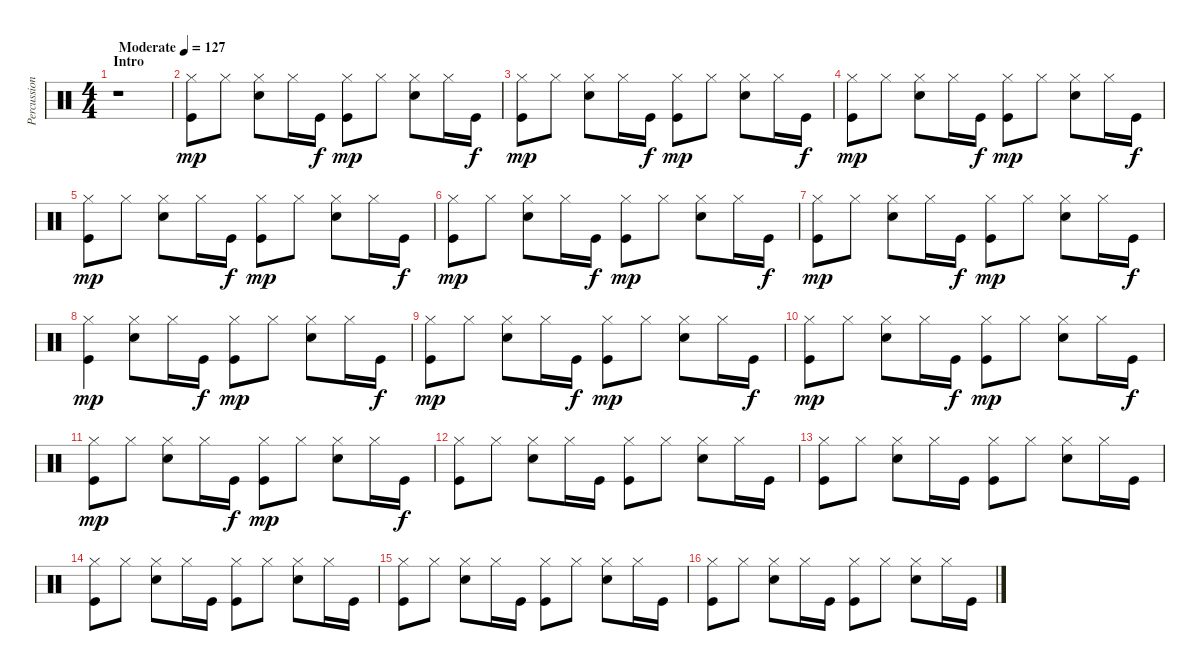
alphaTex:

\track ("Percussion" "Percussion") {instrument percussion}
\staff {score}
\articulation defaults
\ts (4 4)
\section ("" "Intro")
\tempo (127 "Moderate")
\clef neutral
\ks c
r.1{dy mp} |
("Hi-Hat (closed)" "Kick (hit)").8 "Hi-Hat (closed)".8 ("Hi-Hat (closed)" "Snare (hit) 2").8 "Hi-Hat (closed)".16 "Kick (hit)".16{dy f} ("Hi-Hat (closed)" "Kick (hit)").8{dy mp} "Hi-Hat (closed)".8 ("Hi-Hat (closed)" "Snare (hit) 2").8 "Hi-Hat (closed)".16 "Kick (hit)".16{dy f} |
("Hi-Hat (closed)" "Kick (hit)").8{dy mp} "Hi-Hat (closed)".8 ("Hi-Hat (closed)" "Snare (hit) 2").8 "Hi-Hat (closed)".16 "Kick (hit)".16{dy f} ("Hi-Hat (closed)" "Kick (hit)").8{dy mp} "Hi-Hat (closed)".8 ("Hi-Hat (closed)" "Snare (hit) 2").8 "Hi-Hat (closed)".16 "Kick (hit)".16{dy f} |
("Hi-Hat (closed)" "Kick (hit)").8{dy mp} "Hi-Hat (closed)".8 ("Hi-Hat (closed)" "Snare (hit) 2").8 "Hi-Hat (closed)".16 "Kick (hit)".16{dy f} ("Hi-Hat (closed)" "Kick (hit)").8{dy mp} "Hi-Hat (closed)".8 ("Hi-Hat (closed)" "Snare (hit) 2").8 "Hi-Hat (closed)".16 "Kick (hit)".16{dy f} |
("Hi-Hat (closed)" "Kick (hit)").8{dy mp} "Hi-Hat (closed)".8 ("Hi-Hat (closed)" "Snare (hit) 2").8 "Hi-Hat (closed)".16 "Kick (hit)".16{dy f} ("Hi-Hat (closed)" "Kick (hit)").8{dy mp} "Hi-Hat (closed)".8 ("Hi-Hat (closed)" "Snare (hit) 2").8 "Hi-Hat (closed)".16 "Kick (hit)".16{dy f} |
("Hi-Hat (closed)" "Kick (hit)").8{dy mp} "Hi-Hat (closed)".8 ("Hi-Hat (closed)" "Snare (hit) 2").8 "Hi-Hat (closed)".16 "Kick (hit)".16{dy f} ("Hi-Hat (closed)" "Kick (hit)").8{dy mp} "Hi-Hat (closed)".8 ("Hi-Hat (closed)" "Snare (hit) 2").8 "Hi-Hat (closed)".16 "Kick (hit)".16{dy f} |
("Hi-Hat (closed)" "Kick (hit)").8{dy mp} "Hi-Hat (closed)".8 ("Hi-Hat (closed)" "Snare (hit) 2").8 "Hi-Hat (closed)".16 "Kick (hit)".16{dy f} ("Hi-Hat (closed)" "Kick (hit)").8{dy mp} "Hi-Hat (closed)".8 ("Hi-Hat (closed)" "Snare (hit) 2").8 "Hi-Hat (closed)".16 "Kick (hit)".16{dy f} |
("Hi-Hat (closed)" "Kick (hit)").4{dy mp} ("Hi-Hat (closed)" "Snare (hit) 2").8 "Hi-Hat (closed)".16 "Kick (hit)".16{dy f} ("Hi-Hat (closed)" "Kick (hit)").8{dy mp} "Hi-Hat (closed)".8 ("Hi-Hat (closed)" "Snare (hit) 2").8 "Hi-Hat (closed)".16 "Kick (hit)".16{dy f} |
("Hi-Hat (closed)" "Kick (hit)").8{dy mp} "Hi-Hat (closed)".8 ("Hi-Hat (closed)" "Snare (hit) 2").8 "Hi-Hat (closed)".16 "Kick (hit)".16{dy f} ("Hi-Hat (closed)" "Kick (hit)").8{dy mp} "Hi-Hat (closed)".8 ("Hi-Hat (closed)" "Snare (hit) 2").8 "Hi-Hat (closed)".16 "Kick (hit)".16{dy f} |
("Hi-Hat (closed)" "Kick (hit)").8{dy mp} "Hi-Hat (closed)".8 ("Hi-Hat (closed)" "Snare (hit) 2").8 "Hi-Hat (closed)".16 "Kick (hit)".16{dy f} ("Hi-Hat (closed)" "Kick (hit)").8{dy mp} "Hi-Hat (closed)".8 ("Hi-Hat (closed)" "Snare (hit) 2").8 "Hi-Hat (closed)".16 "Kick (hit)".16{dy f} |
("Hi-Hat (closed)" "Kick (hit)").8{dy mp} "Hi-Hat (closed)".8 ("Hi-Hat (closed)" "Snare (hit) 2").8 "Hi-Hat (closed)".16 "Kick (hit)".16{dy f} ("Hi-Hat (closed)" "Kick (hit)").8{dy mp} "Hi-Hat (closed)".8 ("Hi-Hat (closed)" "Snare (hit) 2").8 "Hi-Hat (closed)".16 "Kick (hit)".16{dy f} |
("Hi-Hat (closed)" "Kick (hit)").8 "Hi-Hat (closed)".8 ("Hi-Hat (closed)" "Snare (hit) 2").8 "Hi-Hat (closed)".16 "Kick (hit)".16 ("Hi-Hat (closed)" "Kick (hit)").8 "Hi-Hat (closed)".8 ("Hi-Hat (closed)" "Snare (hit) 2").8 "Hi-Hat (closed)".16 "Kick (hit)".16 |
("Hi-Hat (closed)" "Kick (hit)").8 "Hi-Hat (closed)".8 ("Hi-Hat (closed)" "Snare (hit) 2").8 "Hi-Hat (closed)".16 "Kick (hit)".16 ("Hi-Hat (closed)" "Kick (hit)").8 "Hi-Hat (closed)".8 ("Hi-Hat (closed)" "Snare (hit) 2").8 "Hi-Hat (closed)".16 "Kick (hit)".16 |
("Hi-Hat (closed)" "Kick (hit)").8 "Hi-Hat (closed)".8 ("Hi-Hat (closed)" "Snare (hit) 2").8 "Hi-Hat (closed)".16 "Kick (hit)".16 ("Hi-Hat (closed)" "Kick (hit)").8 "Hi-Hat (closed)".8 ("Hi-Hat (closed)" "Snare (hit) 2").8 "Hi-Hat (closed)".16 "Kick (hit)".16 |
("Hi-Hat (closed)" "Kick (hit)").8 "Hi-Hat (closed)".8 ("Hi-Hat (closed)" "Snare (hit) 2").8 "Hi-Hat (closed)".16 "Kick (hit)".16 ("Hi-Hat (closed)" "Kick (hit)").8 "Hi-Hat (closed)".8 ("Hi-Hat (closed)" "Snare (hit) 2").8 "Hi-Hat (closed)".16 "Kick (hit)".16 |
("Hi-Hat (closed)" "Kick (hit)").8 "Hi-Hat (closed)".8 ("Hi-Hat (closed)" "Snare (hit) 2").8 "Hi-Hat (closed)".16 "Kick (hit)".16 ("Hi-Hat (closed)" "Kick (hit)").8 "Hi-Hat (closed)".8 ("Hi-Hat (closed)" "Snare (hit) 2").8 "Hi-Hat (closed)".16 "Kick (hit)".16
